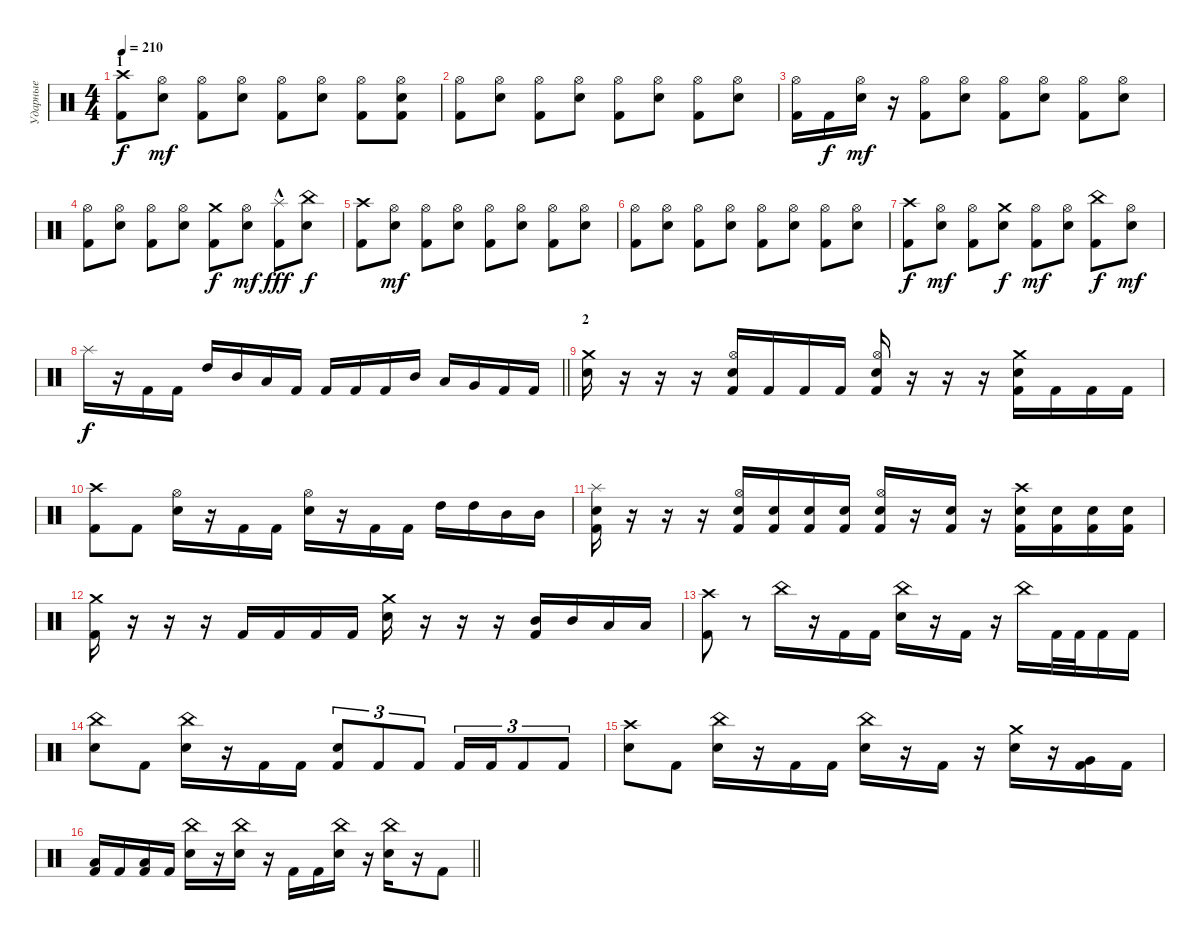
\track ("Ударные" "Ударные") {instrument percussion}
\staff {score}
\articulation defaults
\ts (4 4)
\section ("" "1")
\tempo 210
\clef neutral
\ks c
("Crash high (hit)" "Kick (hit) 2").8{dy f} ("Hi-Hat (open)" "Snare (hit) 2").8{dy mf} ("Hi-Hat (open)" "Kick (hit) 2").8 ("Hi-Hat (open)" "Snare (hit) 2").8 ("Hi-Hat (open)" "Kick (hit) 2").8 ("Hi-Hat (open)" "Snare (hit) 2").8 ("Hi-Hat (open)" "Kick (hit) 2").8 ("Hi-Hat (open)" "Snare (hit) 2" "Kick (hit) 2").8 |
("Hi-Hat (open)" "Kick (hit) 2").8 ("Hi-Hat (open)" "Snare (hit) 2").8 ("Hi-Hat (open)" "Kick (hit) 2").8 ("Hi-Hat (open)" "Snare (hit) 2").8 ("Hi-Hat (open)" "Kick (hit) 2").8 ("Hi-Hat (open)" "Snare (hit) 2").8 ("Hi-Hat (open)" "Kick (hit) 2").8 ("Hi-Hat (open)" "Snare (hit) 2").8 |
("Hi-Hat (open)" "Kick (hit) 2").16 "Kick (hit) 2".16{dy f} ("Hi-Hat (open)" "Snare (hit) 2").16{dy mf} r.16 ("Hi-Hat (open)" "Kick (hit) 2").8 ("Hi-Hat (open)" "Snare (hit) 2").8 ("Hi-Hat (open)" "Kick (hit) 2").8 ("Hi-Hat (open)" "Snare (hit) 2").8 ("Hi-Hat (open)" "Kick (hit) 2").8 ("Hi-Hat (open)" "Snare (hit) 2").8 |
("Hi-Hat (open)" "Kick (hit) 2").8 ("Hi-Hat (open)" "Snare (hit) 2").8 ("Hi-Hat (open)" "Kick (hit) 2").8 ("Hi-Hat (open)" "Snare (hit) 2").8 ("Crash medium (hit)" "Kick (hit) 2").8{dy f} ("Hi-Hat (open)" "Snare (hit) 2").8{dy mf} ("Splash (hit)"{hac} "Kick (hit) 2").8{dy fff} ("China (hit)" "Snare (hit) 2").8{dy f} |
("Crash high (hit)" "Kick (hit) 2").8 ("Hi-Hat (open)" "Snare (hit) 2").8{dy mf} ("Hi-Hat (open)" "Kick (hit) 2").8 ("Hi-Hat (open)" "Snare (hit) 2").8 ("Hi-Hat (open)" "Kick (hit) 2").8 ("Hi-Hat (open)" "Snare (hit) 2").8 ("Hi-Hat (open)" "Kick (hit) 2").8 ("Hi-Hat (open)" "Snare (hit) 2").8 |
("Hi-Hat (open)" "Kick (hit) 2").8 ("Hi-Hat (open)" "Snare (hit) 2").8 ("Hi-Hat (open)" "Kick (hit) 2").8 ("Hi-Hat (open)" "Snare (hit) 2").8 ("Hi-Hat (open)" "Kick (hit) 2").8 ("Hi-Hat (open)" "Snare (hit) 2").8 ("Hi-Hat (open)" "Kick (hit) 2").8 ("Hi-Hat (open)" "Snare (hit) 2").8 |
("Crash high (hit)" "Kick (hit) 2").8{dy f} ("Hi-Hat (open)" "Snare (hit) 2").8{dy mf} ("Hi-Hat (open)" "Kick (hit) 2").8 ("Crash medium (hit)" "Snare (hit) 2").8{dy f} ("Hi-Hat (open)" "Kick (hit) 2").8{dy mf} ("Hi-Hat (open)" "Snare (hit) 2").8 ("China (hit)" "Kick (hit) 2").8{dy f} ("Hi-Hat (open)" "Snare (hit) 2").8{dy mf} |
\barLineRight lightlight "Splash (hit)".16{dy f}
r.16 "Kick (hit) 2".16 "Kick (hit) 2".16 "High Tom (hit)".16 "Mid Tom (hit)".16 "Low Tom (hit)".16 "Kick (hit) 2".16 "Kick (hit) 2".16 "Kick (hit) 2".16 "Kick (hit) 2".16 "Mid Tom (hit)".16 "Low Tom (hit)".16 "Very Low Tom (hit)".16 "Kick (hit) 2".16 "Kick (hit) 2".16 |
\section ("" "2")
("Crash medium (hit)" "Snare (hit) 2").16 r.16 r.16 r.16 ("Hi-Hat (open)" "Snare (hit) 2" "Kick (hit) 2").16 "Kick (hit) 2".16 "Kick (hit) 2".16 "Kick (hit) 2".16 ("Hi-Hat (open)" "Snare (hit) 2" "Kick (hit) 2").16 r.16 r.16 r.16 ("Crash medium (hit)" "Snare (hit) 2" "Kick (hit) 2").16 "Kick (hit) 2".16 "Kick (hit) 2".16 "Kick (hit) 2".16 |
("Crash high (hit)" "Kick (hit) 2").8 "Kick (hit) 2".8 ("Hi-Hat (open)" "Snare (hit) 2").16 r.16 "Kick (hit) 2".16 "Kick (hit) 2".16 ("Hi-Hat (open)" "Snare (hit) 2").16 r.16 "Kick (hit) 2".16 "Kick (hit) 2".16 "High Tom (hit)".16 "High Tom (hit)".16 "Mid Tom (hit)".16 "Mid Tom (hit)".16 |
("Splash (hit)" "Snare (hit) 2" "Kick (hit) 2").16 r.16 r.16 r.16 ("Hi-Hat (open)" "Snare (hit) 2" "Kick (hit) 2").16 ("Snare (hit) 2" "Kick (hit) 2").16 ("Snare (hit) 2" "Kick (hit) 2").16 ("Snare (hit) 2" "Kick (hit) 2").16 ("Hi-Hat (open)" "Snare (hit) 2" "Kick (hit) 2").16 r.16 ("Snare (hit) 2" "Kick (hit) 2").16 r.16 ("Crash high (hit)" "Snare (hit) 2" "Kick (hit) 2").16 ("Snare (hit) 2" "Kick (hit) 2").16 ("Snare (hit) 2" "Kick (hit) 2").16 ("Snare (hit) 2" "Kick (hit) 2").16 |
("Crash medium (hit)" "Kick (hit) 2").16 r.16 r.16 r.16 "Kick (hit) 2".16 "Kick (hit) 2".16 "Kick (hit) 2".16 "Kick (hit) 2".16 ("Crash medium (hit)" "Snare (hit) 2").16 r.16 r.16 r.16 ("Mid Tom (hit)" "Kick (hit) 2").16 "Mid Tom (hit)".16 "Low Tom (hit)".16 "Low Tom (hit)".16 |
("Crash high (hit)" "Kick (hit) 2").8 r.8 "China (hit)".16 r.16 "Kick (hit) 2".16 "Kick (hit) 2".16 ("China (hit)" "Snare (hit) 2").16 r.16 "Kick (hit) 2".16 r.16 "China (hit)".16 "Kick (hit) 2".32 "Kick (hit) 2".32 "Kick (hit) 2".16 "Kick (hit) 2".16 |
("China (hit)" "Snare (hit) 2").8 "Kick (hit) 2".8 ("China (hit)" "Snare (hit) 2").16 r.16 "Kick (hit) 2".16 "Kick (hit) 2".16 ("Snare (hit) 2" "Kick (hit) 2").8{tu (3 2)} "Kick (hit) 2".8{tu (3 2)} "Kick (hit) 2".8{tu (3 2)} "Kick (hit) 2".16{tu (3 2)} "Kick (hit) 2".16{tu (3 2)} "Kick (hit) 2".8{tu (3 2)} "Kick (hit) 2".8{tu (3 2)} |
("Crash high (hit)" "Snare (hit) 2").8 "Kick (hit) 2".8 ("China (hit)" "Snare (hit) 2").16 r.16 "Kick (hit) 2".16 "Kick (hit) 2".16 ("China (hit)" "Snare (hit) 2").16 r.16 "Kick (hit) 2".16 r.16 ("Crash medium (hit)" "Snare (hit) 2").16 r.16 ("Very Low Tom (hit)" "Kick (hit) 2").16 "Kick (hit) 2".16 |
\barLineRight lightlight
("Low Floor Tom (hit)" "Kick (hit) 2").16 "Kick (hit) 2".16 ("Low Tom (hit)" "Kick (hit) 2").16 "Kick (hit) 2".16 ("China (hit)" "Snare (hit) 2").16 r.16 ("China (hit)" "Snare (hit) 2").16 r.16 "Kick (hit) 2".16 "Kick (hit) 2".16 ("China (hit)" "Snare (hit) 2").16 r.16 ("China (hit)" "Snare (hit) 2").16 r.16 "Kick (hit) 2".8
